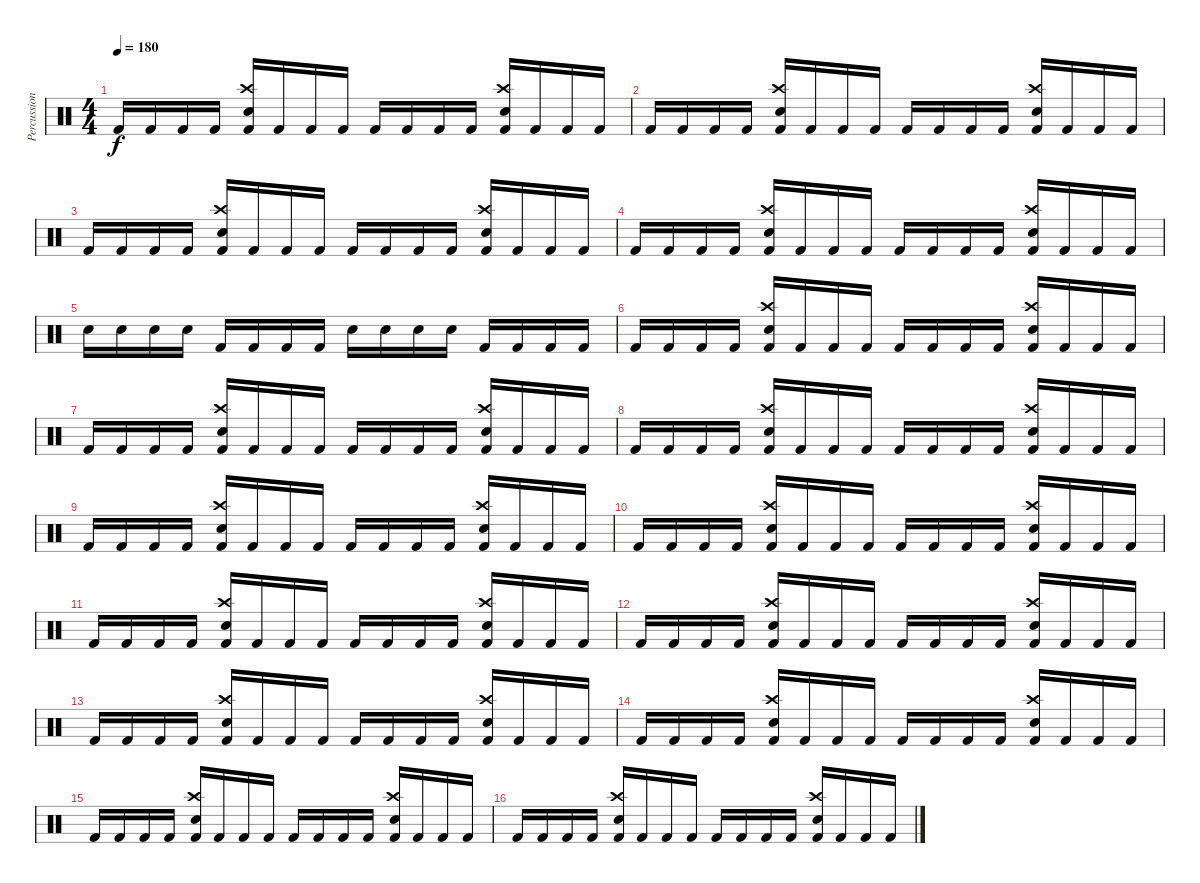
\track ("Percussion" "Percussion") {instrument percussion}
\staff {score}
\articulation defaults
\ts (4 4)
\tempo 180
\clef neutral
\ks c "Kick (hit) 2".16{dy f} "Kick (hit) 2".16 "Kick (hit) 2".16 "Kick (hit) 2".16
("Crash high (hit)" "Kick (hit) 2" "Snare (hit) 2").16 "Kick (hit) 2".16 "Kick (hit) 2".16 "Kick (hit) 2".16 "Kick (hit) 2".16 "Kick (hit) 2".16 "Kick (hit) 2".16 "Kick (hit) 2".16 ("Crash high (hit)" "Kick (hit) 2" "Snare (hit) 2").16 "Kick (hit) 2".16 "Kick (hit) 2".16 "Kick (hit) 2".16 |
"Kick (hit) 2".16 "Kick (hit) 2".16 "Kick (hit) 2".16 "Kick (hit) 2".16 ("Crash high (hit)" "Kick (hit) 2" "Snare (hit) 2").16 "Kick (hit) 2".16 "Kick (hit) 2".16 "Kick (hit) 2".16 "Kick (hit) 2".16 "Kick (hit) 2".16 "Kick (hit) 2".16 "Kick (hit) 2".16 ("Crash high (hit)" "Kick (hit) 2" "Snare (hit) 2").16 "Kick (hit) 2".16 "Kick (hit) 2".16 "Kick (hit) 2".16 |
"Kick (hit) 2".16 "Kick (hit) 2".16 "Kick (hit) 2".16 "Kick (hit) 2".16 ("Crash high (hit)" "Kick (hit) 2" "Snare (hit) 2").16 "Kick (hit) 2".16 "Kick (hit) 2".16 "Kick (hit) 2".16 "Kick (hit) 2".16 "Kick (hit) 2".16 "Kick (hit) 2".16 "Kick (hit) 2".16 ("Crash high (hit)" "Kick (hit) 2" "Snare (hit) 2").16 "Kick (hit) 2".16 "Kick (hit) 2".16 "Kick (hit) 2".16 |
"Kick (hit) 2".16 "Kick (hit) 2".16 "Kick (hit) 2".16 "Kick (hit) 2".16 ("Crash high (hit)" "Kick (hit) 2" "Snare (hit) 2").16 "Kick (hit) 2".16 "Kick (hit) 2".16 "Kick (hit) 2".16 "Kick (hit) 2".16 "Kick (hit) 2".16 "Kick (hit) 2".16 "Kick (hit) 2".16 ("Crash high (hit)" "Kick (hit) 2" "Snare (hit) 2").16 "Kick (hit) 2".16 "Kick (hit) 2".16 "Kick (hit) 2".16 |
"Electric Snare (hit)".16 "Electric Snare (hit)".16 "Electric Snare (hit)".16 "Electric Snare (hit)".16 "Kick (hit) 2".16 "Kick (hit) 2".16 "Kick (hit) 2".16 "Kick (hit) 2".16 "Snare (hit) 2".16 "Snare (hit) 2".16 "Snare (hit) 2".16 "Snare (hit) 2".16 "Kick (hit) 2".16 "Kick (hit) 2".16 "Kick (hit) 2".16 "Kick (hit) 2".16 |
"Kick (hit) 2".16 "Kick (hit) 2".16 "Kick (hit) 2".16 "Kick (hit) 2".16 ("Crash high (hit)" "Kick (hit) 2" "Snare (hit) 2").16 "Kick (hit) 2".16 "Kick (hit) 2".16 "Kick (hit) 2".16 "Kick (hit) 2".16 "Kick (hit) 2".16 "Kick (hit) 2".16 "Kick (hit) 2".16 ("Crash high (hit)" "Kick (hit) 2" "Snare (hit) 2").16 "Kick (hit) 2".16 "Kick (hit) 2".16 "Kick (hit) 2".16 |
"Kick (hit) 2".16 "Kick (hit) 2".16 "Kick (hit) 2".16 "Kick (hit) 2".16 ("Crash high (hit)" "Kick (hit) 2" "Snare (hit) 2").16 "Kick (hit) 2".16 "Kick (hit) 2".16 "Kick (hit) 2".16 "Kick (hit) 2".16 "Kick (hit) 2".16 "Kick (hit) 2".16 "Kick (hit) 2".16 ("Crash high (hit)" "Kick (hit) 2" "Snare (hit) 2").16 "Kick (hit) 2".16 "Kick (hit) 2".16 "Kick (hit) 2".16 |
"Kick (hit) 2".16 "Kick (hit) 2".16 "Kick (hit) 2".16 "Kick (hit) 2".16 ("Crash high (hit)" "Kick (hit) 2" "Snare (hit) 2").16 "Kick (hit) 2".16 "Kick (hit) 2".16 "Kick (hit) 2".16 "Kick (hit) 2".16 "Kick (hit) 2".16 "Kick (hit) 2".16 "Kick (hit) 2".16 ("Crash high (hit)" "Kick (hit) 2" "Snare (hit) 2").16 "Kick (hit) 2".16 "Kick (hit) 2".16 "Kick (hit) 2".16 |
"Kick (hit) 2".16 "Kick (hit) 2".16 "Kick (hit) 2".16 "Kick (hit) 2".16 ("Crash high (hit)" "Kick (hit) 2" "Snare (hit) 2").16 "Kick (hit) 2".16 "Kick (hit) 2".16 "Kick (hit) 2".16 "Kick (hit) 2".16 "Kick (hit) 2".16 "Kick (hit) 2".16 "Kick (hit) 2".16 ("Crash high (hit)" "Kick (hit) 2" "Snare (hit) 2").16 "Kick (hit) 2".16 "Kick (hit) 2".16 "Kick (hit) 2".16 |
"Kick (hit) 2".16 "Kick (hit) 2".16 "Kick (hit) 2".16 "Kick (hit) 2".16 ("Crash high (hit)" "Kick (hit) 2" "Snare (hit) 2").16 "Kick (hit) 2".16 "Kick (hit) 2".16 "Kick (hit) 2".16 "Kick (hit) 2".16 "Kick (hit) 2".16 "Kick (hit) 2".16 "Kick (hit) 2".16 ("Crash high (hit)" "Kick (hit) 2" "Snare (hit) 2").16 "Kick (hit) 2".16 "Kick (hit) 2".16 "Kick (hit) 2".16 |
"Kick (hit) 2".16 "Kick (hit) 2".16 "Kick (hit) 2".16 "Kick (hit) 2".16 ("Crash high (hit)" "Kick (hit) 2" "Snare (hit) 2").16 "Kick (hit) 2".16 "Kick (hit) 2".16 "Kick (hit) 2".16 "Kick (hit) 2".16 "Kick (hit) 2".16 "Kick (hit) 2".16 "Kick (hit) 2".16 ("Crash high (hit)" "Kick (hit) 2" "Snare (hit) 2").16 "Kick (hit) 2".16 "Kick (hit) 2".16 "Kick (hit) 2".16 |
"Kick (hit) 2".16 "Kick (hit) 2".16 "Kick (hit) 2".16 "Kick (hit) 2".16 ("Crash high (hit)" "Kick (hit) 2" "Snare (hit) 2").16 "Kick (hit) 2".16 "Kick (hit) 2".16 "Kick (hit) 2".16 "Kick (hit) 2".16 "Kick (hit) 2".16 "Kick (hit) 2".16 "Kick (hit) 2".16 ("Crash high (hit)" "Kick (hit) 2" "Snare (hit) 2").16 "Kick (hit) 2".16 "Kick (hit) 2".16 "Kick (hit) 2".16 |
"Kick (hit) 2".16 "Kick (hit) 2".16 "Kick (hit) 2".16 "Kick (hit) 2".16 ("Crash high (hit)" "Kick (hit) 2" "Snare (hit) 2").16 "Kick (hit) 2".16 "Kick (hit) 2".16 "Kick (hit) 2".16 "Kick (hit) 2".16 "Kick (hit) 2".16 "Kick (hit) 2".16 "Kick (hit) 2".16 ("Crash high (hit)" "Kick (hit) 2" "Snare (hit) 2").16 "Kick (hit) 2".16 "Kick (hit) 2".16 "Kick (hit) 2".16 |
"Kick (hit) 2".16 "Kick (hit) 2".16 "Kick (hit) 2".16 "Kick (hit) 2".16 ("Crash high (hit)" "Kick (hit) 2" "Snare (hit) 2").16 "Kick (hit) 2".16 "Kick (hit) 2".16 "Kick (hit) 2".16 "Kick (hit) 2".16 "Kick (hit) 2".16 "Kick (hit) 2".16 "Kick (hit) 2".16 ("Crash high (hit)" "Kick (hit) 2" "Snare (hit) 2").16 "Kick (hit) 2".16 "Kick (hit) 2".16 "Kick (hit) 2".16 |
"Kick (hit) 2".16 "Kick (hit) 2".16 "Kick (hit) 2".16 "Kick (hit) 2".16 ("Crash high (hit)" "Kick (hit) 2" "Snare (hit) 2").16 "Kick (hit) 2".16 "Kick (hit) 2".16 "Kick (hit) 2".16 "Kick (hit) 2".16 "Kick (hit) 2".16 "Kick (hit) 2".16 "Kick (hit) 2".16 ("Crash high (hit)" "Kick (hit) 2" "Snare (hit) 2").16 "Kick (hit) 2".16 "Kick (hit) 2".16 "Kick (hit) 2".16 |
"Kick (hit) 2".16 "Kick (hit) 2".16 "Kick (hit) 2".16 "Kick (hit) 2".16 ("Crash high (hit)" "Kick (hit) 2" "Snare (hit) 2").16 "Kick (hit) 2".16 "Kick (hit) 2".16 "Kick (hit) 2".16 "Kick (hit) 2".16 "Kick (hit) 2".16 "Kick (hit) 2".16 "Kick (hit) 2".16 ("Crash high (hit)" "Kick (hit) 2" "Snare (hit) 2").16 "Kick (hit) 2".16 "Kick (hit) 2".16 "Kick (hit) 2".16
